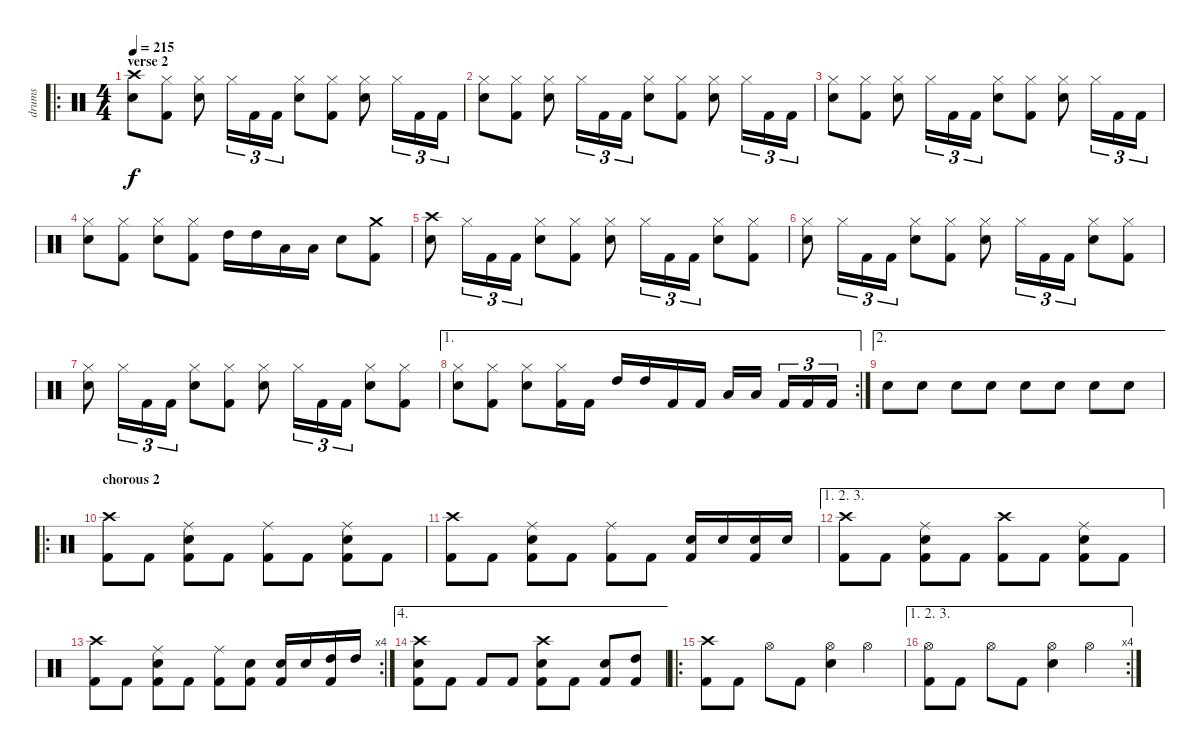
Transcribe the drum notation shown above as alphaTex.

\track ("drums" "drums") {instrument percussion}
\staff {score}
\articulation defaults
\ro
\ts (4 4)
\section ("" "verse 2")
\tempo 215
\clef neutral
\ks c
("Crash high (hit)" "Electric Snare (hit)").8{dy f} ("Hi-Hat (closed)" "Kick (hit) 2").8 ("Hi-Hat (closed)" "Electric Snare (hit)").8 "Hi-Hat (closed)".16{tu (3 2)} "Kick (hit) 2".16{tu (3 2)} "Kick (hit) 2".16{tu (3 2)} ("Hi-Hat (closed)" "Electric Snare (hit)").8 ("Hi-Hat (closed)" "Kick (hit) 2").8 ("Hi-Hat (closed)" "Electric Snare (hit)").8 "Hi-Hat (closed)".16{tu (3 2)} "Kick (hit) 2".16{tu (3 2)} "Kick (hit) 2".16{tu (3 2)} |
("Hi-Hat (closed)" "Electric Snare (hit)").8 ("Hi-Hat (closed)" "Kick (hit) 2").8 ("Hi-Hat (closed)" "Electric Snare (hit)").8 "Hi-Hat (closed)".16{tu (3 2)} "Kick (hit) 2".16{tu (3 2)} "Kick (hit) 2".16{tu (3 2)} ("Hi-Hat (closed)" "Electric Snare (hit)").8 ("Hi-Hat (closed)" "Kick (hit) 2").8 ("Hi-Hat (closed)" "Electric Snare (hit)").8 "Hi-Hat (closed)".16{tu (3 2)} "Kick (hit) 2".16{tu (3 2)} "Kick (hit) 2".16{tu (3 2)} |
("Hi-Hat (closed)" "Electric Snare (hit)").8 ("Hi-Hat (closed)" "Kick (hit) 2").8 ("Hi-Hat (closed)" "Electric Snare (hit)").8 "Hi-Hat (closed)".16{tu (3 2)} "Kick (hit) 2".16{tu (3 2)} "Kick (hit) 2".16{tu (3 2)} ("Hi-Hat (closed)" "Electric Snare (hit)").8 ("Hi-Hat (closed)" "Kick (hit) 2").8 ("Hi-Hat (closed)" "Electric Snare (hit)").8 "Hi-Hat (closed)".16{tu (3 2)} "Kick (hit) 2".16{tu (3 2)} "Kick (hit) 2".16{tu (3 2)} |
("Hi-Hat (closed)" "Electric Snare (hit)").8 ("Hi-Hat (closed)" "Kick (hit) 2").8 ("Hi-Hat (closed)" "Electric Snare (hit)").8 ("Hi-Hat (closed)" "Kick (hit) 2").8 "High Tom (hit)".16 "High Tom (hit)".16 "Low Tom (hit)".16 "Low Tom (hit)".16 "Electric Snare (hit)".8 ("Crash medium (hit)" "Kick (hit) 2").8 |
("Crash high (hit)" "Electric Snare (hit)").8 "Hi-Hat (closed)".16{tu (3 2)} "Kick (hit) 2".16{tu (3 2)} "Kick (hit) 2".16{tu (3 2)} ("Hi-Hat (closed)" "Electric Snare (hit)").8 ("Hi-Hat (closed)" "Kick (hit) 2").8 ("Hi-Hat (closed)" "Electric Snare (hit)").8 "Hi-Hat (closed)".16{tu (3 2)} "Kick (hit) 2".16{tu (3 2)} "Kick (hit) 2".16{tu (3 2)} ("Hi-Hat (closed)" "Electric Snare (hit)").8 ("Hi-Hat (closed)" "Kick (hit) 2").8 |
("Hi-Hat (closed)" "Electric Snare (hit)").8 "Hi-Hat (closed)".16{tu (3 2)} "Kick (hit) 2".16{tu (3 2)} "Kick (hit) 2".16{tu (3 2)} ("Hi-Hat (closed)" "Electric Snare (hit)").8 ("Hi-Hat (closed)" "Kick (hit) 2").8 ("Hi-Hat (closed)" "Electric Snare (hit)").8 "Hi-Hat (closed)".16{tu (3 2)} "Kick (hit) 2".16{tu (3 2)} "Kick (hit) 2".16{tu (3 2)} ("Hi-Hat (closed)" "Electric Snare (hit)").8 ("Hi-Hat (closed)" "Kick (hit) 2").8 |
("Hi-Hat (closed)" "Electric Snare (hit)").8 "Hi-Hat (closed)".16{tu (3 2)} "Kick (hit) 2".16{tu (3 2)} "Kick (hit) 2".16{tu (3 2)} ("Hi-Hat (closed)" "Electric Snare (hit)").8 ("Hi-Hat (closed)" "Kick (hit) 2").8 ("Hi-Hat (closed)" "Electric Snare (hit)").8 "Hi-Hat (closed)".16{tu (3 2)} "Kick (hit) 2".16{tu (3 2)} "Kick (hit) 2".16{tu (3 2)} ("Hi-Hat (closed)" "Electric Snare (hit)").8 ("Hi-Hat (closed)" "Kick (hit) 2").8 |
\ae 1
\rc 2
("Hi-Hat (closed)" "Electric Snare (hit)").8 ("Hi-Hat (closed)" "Kick (hit) 2").8 ("Hi-Hat (closed)" "Electric Snare (hit)").8 ("Hi-Hat (closed)" "Kick (hit) 2").16 "Kick (hit) 2".16 "High Tom (hit)".16 "High Tom (hit)".16 "Kick (hit) 2".16 "Kick (hit) 2".16 "Low Tom (hit)".16 "Low Tom (hit)".16 "Kick (hit) 2".16{tu (3 2)} "Kick (hit) 2".16{tu (3 2)} "Kick (hit) 2".16{tu (3 2)} |
\ae 2 "Electric Snare (hit)".8 "Electric Snare (hit)".8 "Electric Snare (hit)".8 "Electric Snare (hit)".8 "Electric Snare (hit)".8 "Electric Snare (hit)".8 "Electric Snare (hit)".8 "Electric Snare (hit)".8
|
\ro
\section ("" "chorous 2")
("Crash high (hit)" "Kick (hit) 2").8 "Kick (hit) 2".8 ("Ride (middle)" "Electric Snare (hit)" "Kick (hit) 2").8 "Kick (hit) 2".8 ("Ride (middle)" "Kick (hit) 2").8 "Kick (hit) 2".8 ("Ride (middle)" "Electric Snare (hit)" "Kick (hit) 2").8 "Kick (hit) 2".8 |
("Crash high (hit)" "Kick (hit) 2").8 "Kick (hit) 2".8 ("Ride (middle)" "Electric Snare (hit)" "Kick (hit) 2").8 "Kick (hit) 2".8 ("Ride (middle)" "Kick (hit) 2").8 "Kick (hit) 2".8 ("Electric Snare (hit)" "Kick (hit) 2").16 "Electric Snare (hit)".16 ("Electric Snare (hit)" "Kick (hit) 2").16 "Electric Snare (hit)".16 |
\ae (1 2 3)
("Crash high (hit)" "Kick (hit) 2").8 "Kick (hit) 2".8 ("Ride (middle)" "Electric Snare (hit)" "Kick (hit) 2").8 "Kick (hit) 2".8 ("Crash high (hit)" "Kick (hit) 2").8 "Kick (hit) 2".8 ("Ride (middle)" "Electric Snare (hit)" "Kick (hit) 2").8 "Kick (hit) 2".8 |
\rc 4
("Crash high (hit)" "Kick (hit) 2").8 "Kick (hit) 2".8 ("Ride (middle)" "Electric Snare (hit)" "Kick (hit) 2").8 "Kick (hit) 2".8 ("Ride (middle)" "Kick (hit) 2").8 ("Electric Snare (hit)" "Kick (hit) 2").8 ("Electric Snare (hit)" "Kick (hit) 2").16 "Electric Snare (hit)".16 ("High Tom (hit)" "Kick (hit) 2").16 "High Tom (hit)".16 |
\ae 4
("Crash high (hit)" "Electric Snare (hit)" "Kick (hit) 2").8 "Kick (hit) 2".8 "Kick (hit) 2".8 "Kick (hit) 2".8 ("Crash high (hit)" "Electric Snare (hit)" "Kick (hit) 2").8 "Kick (hit) 2".8 ("Electric Snare (hit)" "Kick (hit) 2").8 ("High Tom (hit)" "Kick (hit) 2").8 |
\ro
("Crash high (hit)" "Kick (hit) 2").8 "Kick (hit) 2".8 "Hi-Hat (open)".8 "Kick (hit) 2".8 ("Hi-Hat (open)" "Electric Snare (hit)").4 "Hi-Hat (open)".4 |
\ae (1 2 3)
\rc 4
("Hi-Hat (open)" "Kick (hit) 2").8 "Kick (hit) 2".8 "Hi-Hat (open)".8 "Kick (hit) 2".8 ("Hi-Hat (open)" "Electric Snare (hit)").4 "Hi-Hat (open)".4
